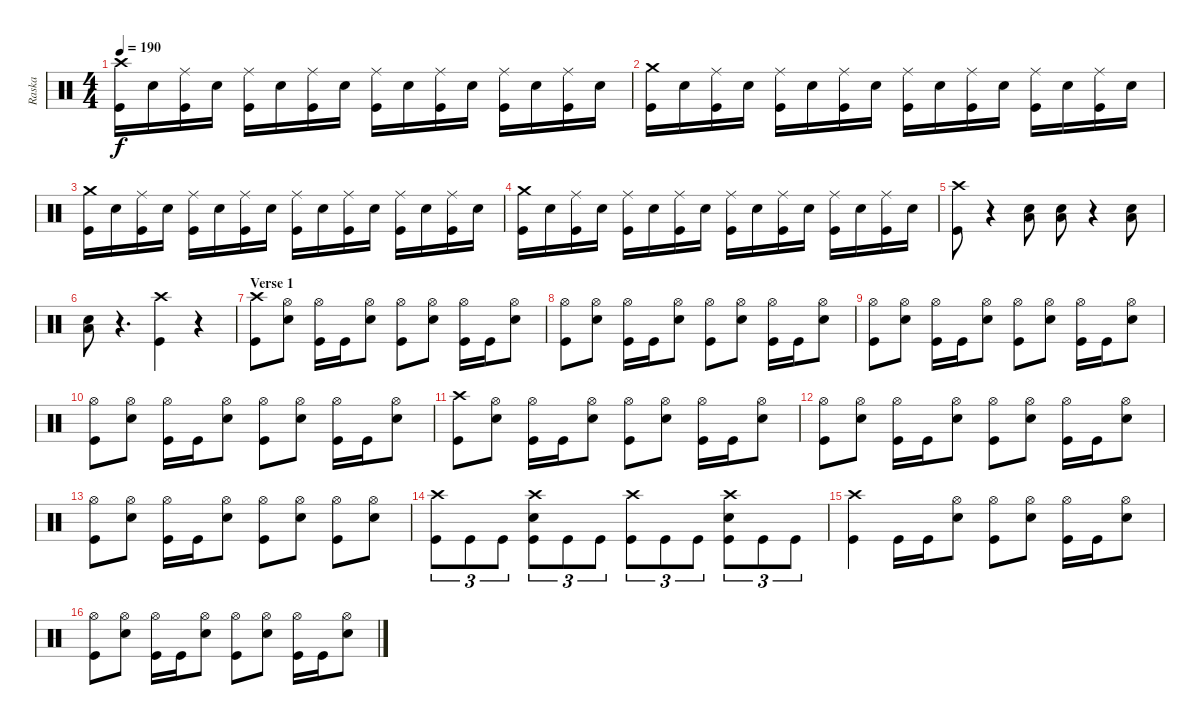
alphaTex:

\track ("Raska" "Raska") {instrument percussion}
\staff {score}
\articulation defaults
\ts (4 4)
\tempo 190
\clef neutral
\ks c
("Crash high (hit)" "Kick (hit)").16{dy f} "Electric Snare (hit)".16 ("Ride (middle)" "Kick (hit)").16 "Electric Snare (hit)".16 ("Ride (middle)" "Kick (hit)").16 "Electric Snare (hit)".16 ("Ride (middle)" "Kick (hit)").16 "Electric Snare (hit)".16 ("Ride (middle)" "Kick (hit)").16 "Electric Snare (hit)".16 ("Ride (middle)" "Kick (hit)").16 "Electric Snare (hit)".16 ("Ride (middle)" "Kick (hit)").16 "Electric Snare (hit)".16 ("Ride (middle)" "Kick (hit)").16 "Electric Snare (hit)".16 |
("Crash medium (hit)" "Kick (hit)").16 "Electric Snare (hit)".16 ("Ride (middle)" "Kick (hit)").16 "Electric Snare (hit)".16 ("Ride (middle)" "Kick (hit)").16 "Electric Snare (hit)".16 ("Ride (middle)" "Kick (hit)").16 "Electric Snare (hit)".16 ("Ride (middle)" "Kick (hit)").16 "Electric Snare (hit)".16 ("Ride (middle)" "Kick (hit)").16 "Electric Snare (hit)".16 ("Ride (middle)" "Kick (hit)").16 "Electric Snare (hit)".16 ("Ride (middle)" "Kick (hit)").16 "Electric Snare (hit)".16 |
("Crash medium (hit)" "Kick (hit)").16 "Electric Snare (hit)".16 ("Ride (middle)" "Kick (hit)").16 "Electric Snare (hit)".16 ("Ride (middle)" "Kick (hit)").16 "Electric Snare (hit)".16 ("Ride (middle)" "Kick (hit)").16 "Electric Snare (hit)".16 ("Ride (middle)" "Kick (hit)").16 "Electric Snare (hit)".16 ("Ride (middle)" "Kick (hit)").16 "Electric Snare (hit)".16 ("Ride (middle)" "Kick (hit)").16 "Electric Snare (hit)".16 ("Ride (middle)" "Kick (hit)").16 "Electric Snare (hit)".16 |
("Crash medium (hit)" "Kick (hit)").16 "Electric Snare (hit)".16 ("Ride (middle)" "Kick (hit)").16 "Electric Snare (hit)".16 ("Ride (middle)" "Kick (hit)").16 "Electric Snare (hit)".16 ("Ride (middle)" "Kick (hit)").16 "Electric Snare (hit)".16 ("Ride (middle)" "Kick (hit)").16 "Electric Snare (hit)".16 ("Ride (middle)" "Kick (hit)").16 "Electric Snare (hit)".16 ("Ride (middle)" "Kick (hit)").16 "Electric Snare (hit)".16 ("Ride (middle)" "Kick (hit)").16 "Electric Snare (hit)".16 |
("Crash high (hit)" "Kick (hit)").8 r.4 ("Low Floor Tom (hit)" "Electric Snare (hit)").8 ("Low Floor Tom (hit)" "Electric Snare (hit)").8 r.4 ("Low Floor Tom (hit)" "Electric Snare (hit)").8 |
("Low Floor Tom (hit)" "Electric Snare (hit)").8 r.4{d} ("Crash high (hit)" "Kick (hit)").4 r.4 |
\section ("" "Verse 1")
("Crash high (hit)" "Kick (hit)").8 ("Hi-Hat (open)" "Electric Snare (hit)").8 ("Hi-Hat (open)" "Kick (hit)").16 "Kick (hit)".16 ("Hi-Hat (open)" "Electric Snare (hit)").8 ("Hi-Hat (open)" "Kick (hit)").8 ("Hi-Hat (open)" "Electric Snare (hit)").8 ("Hi-Hat (open)" "Kick (hit)").16 "Kick (hit)".16 ("Hi-Hat (open)" "Electric Snare (hit)").8 |
("Hi-Hat (open)" "Kick (hit)").8 ("Hi-Hat (open)" "Electric Snare (hit)").8 ("Hi-Hat (open)" "Kick (hit)").16 "Kick (hit)".16 ("Hi-Hat (open)" "Electric Snare (hit)").8 ("Hi-Hat (open)" "Kick (hit)").8 ("Hi-Hat (open)" "Electric Snare (hit)").8 ("Hi-Hat (open)" "Kick (hit)").16 "Kick (hit)".16 ("Hi-Hat (open)" "Electric Snare (hit)").8 |
("Hi-Hat (open)" "Kick (hit)").8 ("Hi-Hat (open)" "Electric Snare (hit)").8 ("Hi-Hat (open)" "Kick (hit)").16 "Kick (hit)".16 ("Hi-Hat (open)" "Electric Snare (hit)").8 ("Hi-Hat (open)" "Kick (hit)").8 ("Hi-Hat (open)" "Electric Snare (hit)").8 ("Hi-Hat (open)" "Kick (hit)").16 "Kick (hit)".16 ("Hi-Hat (open)" "Electric Snare (hit)").8 |
("Hi-Hat (open)" "Kick (hit)").8 ("Hi-Hat (open)" "Electric Snare (hit)").8 ("Hi-Hat (open)" "Kick (hit)").16 "Kick (hit)".16 ("Hi-Hat (open)" "Electric Snare (hit)").8 ("Hi-Hat (open)" "Kick (hit)").8 ("Hi-Hat (open)" "Electric Snare (hit)").8 ("Hi-Hat (open)" "Kick (hit)").16 "Kick (hit)".16 ("Hi-Hat (open)" "Electric Snare (hit)").8 |
("Crash high (hit)" "Kick (hit)").8 ("Hi-Hat (open)" "Electric Snare (hit)").8 ("Hi-Hat (open)" "Kick (hit)").16 "Kick (hit)".16 ("Hi-Hat (open)" "Electric Snare (hit)").8 ("Hi-Hat (open)" "Kick (hit)").8 ("Hi-Hat (open)" "Electric Snare (hit)").8 ("Hi-Hat (open)" "Kick (hit)").16 "Kick (hit)".16 ("Hi-Hat (open)" "Electric Snare (hit)").8 |
("Hi-Hat (open)" "Kick (hit)").8 ("Hi-Hat (open)" "Electric Snare (hit)").8 ("Hi-Hat (open)" "Kick (hit)").16 "Kick (hit)".16 ("Hi-Hat (open)" "Electric Snare (hit)").8 ("Hi-Hat (open)" "Kick (hit)").8 ("Hi-Hat (open)" "Electric Snare (hit)").8 ("Hi-Hat (open)" "Kick (hit)").16 "Kick (hit)".16 ("Hi-Hat (open)" "Electric Snare (hit)").8 |
("Hi-Hat (open)" "Kick (hit)").8 ("Hi-Hat (open)" "Electric Snare (hit)").8 ("Hi-Hat (open)" "Kick (hit)").16 "Kick (hit)".16 ("Hi-Hat (open)" "Electric Snare (hit)").8 ("Hi-Hat (open)" "Kick (hit)").8 ("Hi-Hat (open)" "Electric Snare (hit)").8 ("Hi-Hat (open)" "Kick (hit)").8 ("Hi-Hat (open)" "Electric Snare (hit)").8 |
("Crash high (hit)" "Kick (hit)").8{tu (3 2)} "Kick (hit)".8{tu (3 2)} "Kick (hit)".8{tu (3 2)} ("Crash high (hit)" "Electric Snare (hit)" "Kick (hit)").8{tu (3 2)} "Kick (hit)".8{tu (3 2)} "Kick (hit)".8{tu (3 2)} ("Crash high (hit)" "Kick (hit)").8{tu (3 2)} "Kick (hit)".8{tu (3 2)} "Kick (hit)".8{tu (3 2)} ("Crash high (hit)" "Electric Snare (hit)" "Kick (hit)").8{tu (3 2)} "Kick (hit)".8{tu (3 2)} "Kick (hit)".8{tu (3 2)} |
("Crash high (hit)" "Kick (hit)").4 "Kick (hit)".16 "Kick (hit)".16 ("Hi-Hat (open)" "Electric Snare (hit)").8 ("Hi-Hat (open)" "Kick (hit)").8 ("Hi-Hat (open)" "Electric Snare (hit)").8 ("Hi-Hat (open)" "Kick (hit)").16 "Kick (hit)".16 ("Hi-Hat (open)" "Electric Snare (hit)").8 |
("Hi-Hat (open)" "Kick (hit)").8 ("Hi-Hat (open)" "Electric Snare (hit)").8 ("Hi-Hat (open)" "Kick (hit)").16 "Kick (hit)".16 ("Hi-Hat (open)" "Electric Snare (hit)").8 ("Hi-Hat (open)" "Kick (hit)").8 ("Hi-Hat (open)" "Electric Snare (hit)").8 ("Hi-Hat (open)" "Kick (hit)").16 "Kick (hit)".16 ("Hi-Hat (open)" "Electric Snare (hit)").8
